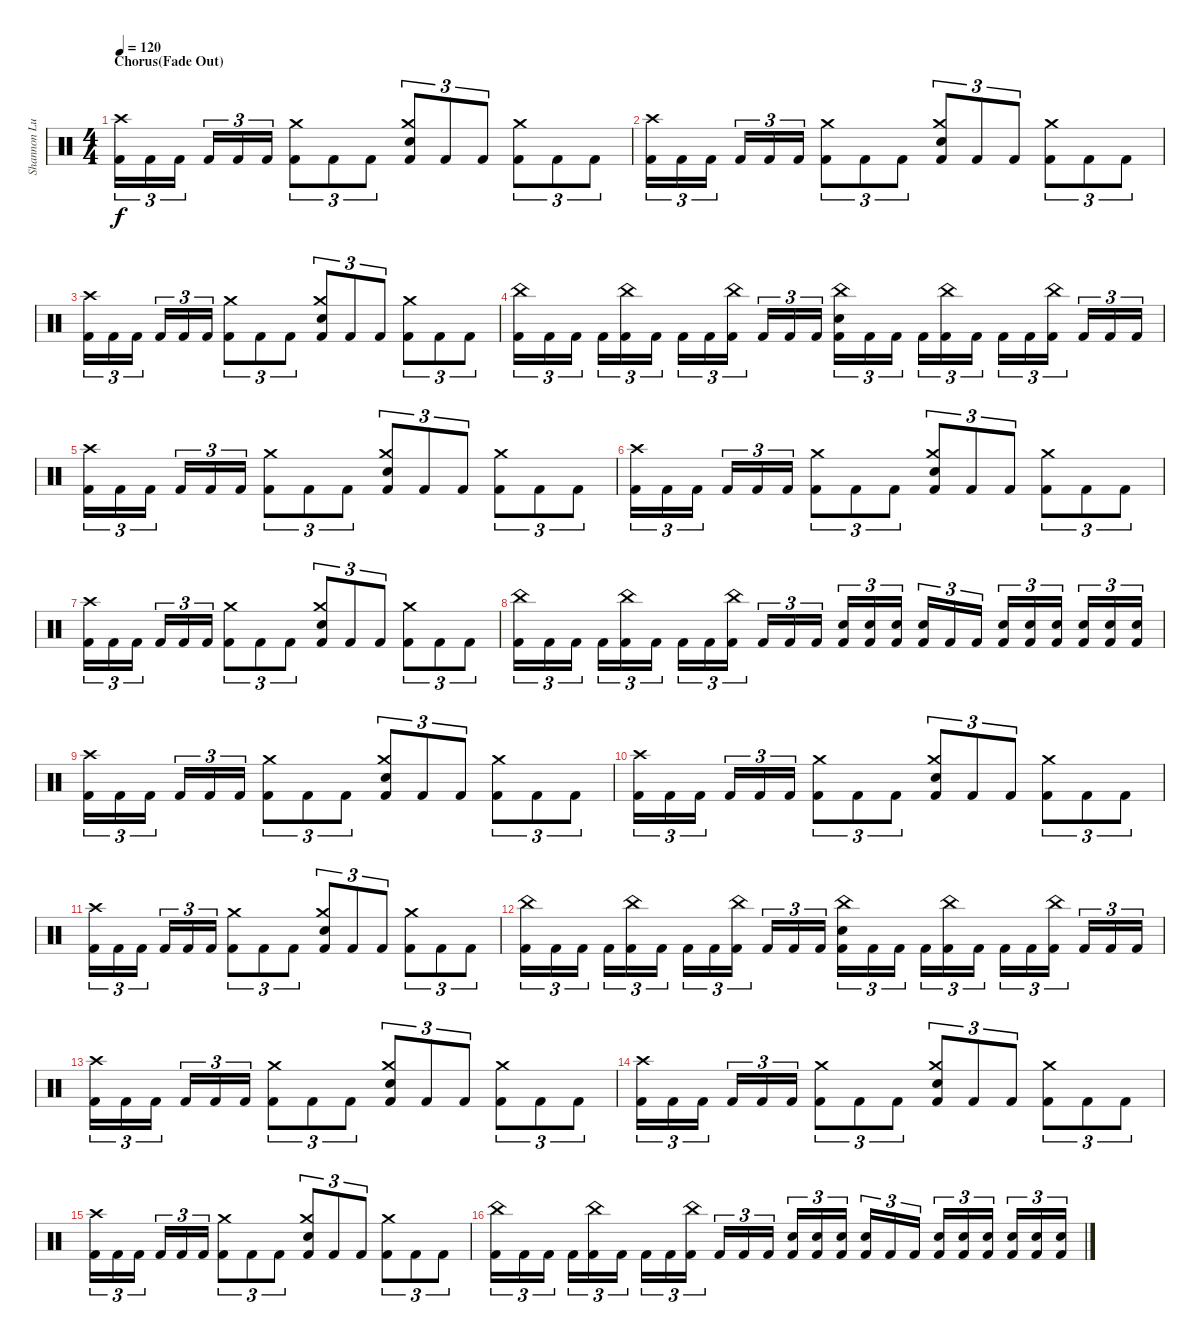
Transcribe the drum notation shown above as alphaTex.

\track ("Shannon Lucas (Drums)" "Shannon Lu") {instrument percussion}
\staff {score}
\articulation defaults
\ts (4 4)
\section ("" "Chorus(Fade Out)")
\tempo 120
\clef neutral
\ks c
("Crash high (hit)" "Kick (hit) 2").16{tu (3 2) dy f volume 15} "Kick (hit) 2".16{tu (3 2)} "Kick (hit) 2".16{tu (3 2)} "Kick (hit) 2".16{tu (3 2)} "Kick (hit) 2".16{tu (3 2)} "Kick (hit) 2".16{tu (3 2)} ("Crash medium (hit)" "Kick (hit) 2").8{tu (3 2)} "Kick (hit) 2".8{tu (3 2)} "Kick (hit) 2".8{tu (3 2)} ("Crash medium (hit)" "Snare (hit) 2" "Kick (hit) 2").8{tu (3 2)} "Kick (hit) 2".8{tu (3 2)} "Kick (hit) 2".8{tu (3 2)} ("Crash medium (hit)" "Kick (hit) 2").8{tu (3 2)} "Kick (hit) 2".8{tu (3 2)} "Kick (hit) 2".8{tu (3 2)} |
("Crash high (hit)" "Kick (hit) 2").16{tu (3 2)} "Kick (hit) 2".16{tu (3 2)} "Kick (hit) 2".16{tu (3 2)} "Kick (hit) 2".16{tu (3 2)} "Kick (hit) 2".16{tu (3 2)} "Kick (hit) 2".16{tu (3 2)} ("Crash medium (hit)" "Kick (hit) 2").8{tu (3 2)} "Kick (hit) 2".8{tu (3 2)} "Kick (hit) 2".8{tu (3 2)} ("Crash medium (hit)" "Snare (hit) 2" "Kick (hit) 2").8{tu (3 2)} "Kick (hit) 2".8{tu (3 2)} "Kick (hit) 2".8{tu (3 2)} ("Crash medium (hit)" "Kick (hit) 2").8{tu (3 2)} "Kick (hit) 2".8{tu (3 2)} "Kick (hit) 2".8{tu (3 2)} |
("Crash high (hit)" "Kick (hit) 2").16{tu (3 2)} "Kick (hit) 2".16{tu (3 2)} "Kick (hit) 2".16{tu (3 2)} "Kick (hit) 2".16{tu (3 2)} "Kick (hit) 2".16{tu (3 2)} "Kick (hit) 2".16{tu (3 2)} ("Crash medium (hit)" "Kick (hit) 2").8{tu (3 2)} "Kick (hit) 2".8{tu (3 2)} "Kick (hit) 2".8{tu (3 2)} ("Crash medium (hit)" "Snare (hit) 2" "Kick (hit) 2").8{tu (3 2)} "Kick (hit) 2".8{tu (3 2)} "Kick (hit) 2".8{tu (3 2)} ("Crash medium (hit)" "Kick (hit) 2").8{tu (3 2)} "Kick (hit) 2".8{tu (3 2)} "Kick (hit) 2".8{tu (3 2)} |
("China (hit)" "Kick (hit) 2").16{tu (3 2) volume 13} "Kick (hit) 2".16{tu (3 2)} "Kick (hit) 2".16{tu (3 2)} "Kick (hit) 2".16{tu (3 2)} ("China (hit)" "Kick (hit) 2").16{tu (3 2)} "Kick (hit) 2".16{tu (3 2)} "Kick (hit) 2".16{tu (3 2)} "Kick (hit) 2".16{tu (3 2)} ("China (hit)" "Kick (hit) 2").16{tu (3 2)} "Kick (hit) 2".16{tu (3 2)} "Kick (hit) 2".16{tu (3 2)} "Kick (hit) 2".16{tu (3 2)} ("Snare (hit) 2" "China (hit)" "Kick (hit) 2").16{tu (3 2)} "Kick (hit) 2".16{tu (3 2)} "Kick (hit) 2".16{tu (3 2)} "Kick (hit) 2".16{tu (3 2)} ("China (hit)" "Kick (hit) 2").16{tu (3 2)} "Kick (hit) 2".16{tu (3 2)} "Kick (hit) 2".16{tu (3 2)} "Kick (hit) 2".16{tu (3 2)} ("China (hit)" "Kick (hit) 2").16{tu (3 2)} "Kick (hit) 2".16{tu (3 2)} "Kick (hit) 2".16{tu (3 2)} "Kick (hit) 2".16{tu (3 2)} |
("Crash high (hit)" "Kick (hit) 2").16{tu (3 2)} "Kick (hit) 2".16{tu (3 2)} "Kick (hit) 2".16{tu (3 2)} "Kick (hit) 2".16{tu (3 2)} "Kick (hit) 2".16{tu (3 2)} "Kick (hit) 2".16{tu (3 2)} ("Crash medium (hit)" "Kick (hit) 2").8{tu (3 2)} "Kick (hit) 2".8{tu (3 2)} "Kick (hit) 2".8{tu (3 2)} ("Crash medium (hit)" "Snare (hit) 2" "Kick (hit) 2").8{tu (3 2)} "Kick (hit) 2".8{tu (3 2)} "Kick (hit) 2".8{tu (3 2)} ("Crash medium (hit)" "Kick (hit) 2").8{tu (3 2)} "Kick (hit) 2".8{tu (3 2)} "Kick (hit) 2".8{tu (3 2)} |
("Crash high (hit)" "Kick (hit) 2").16{tu (3 2)} "Kick (hit) 2".16{tu (3 2)} "Kick (hit) 2".16{tu (3 2)} "Kick (hit) 2".16{tu (3 2)} "Kick (hit) 2".16{tu (3 2)} "Kick (hit) 2".16{tu (3 2)} ("Crash medium (hit)" "Kick (hit) 2").8{tu (3 2)} "Kick (hit) 2".8{tu (3 2)} "Kick (hit) 2".8{tu (3 2)} ("Crash medium (hit)" "Snare (hit) 2" "Kick (hit) 2").8{tu (3 2) volume 12} "Kick (hit) 2".8{tu (3 2)} "Kick (hit) 2".8{tu (3 2)} ("Crash medium (hit)" "Kick (hit) 2").8{tu (3 2)} "Kick (hit) 2".8{tu (3 2)} "Kick (hit) 2".8{tu (3 2)} |
("Crash high (hit)" "Kick (hit) 2").16{tu (3 2)} "Kick (hit) 2".16{tu (3 2)} "Kick (hit) 2".16{tu (3 2)} "Kick (hit) 2".16{tu (3 2)} "Kick (hit) 2".16{tu (3 2)} "Kick (hit) 2".16{tu (3 2)} ("Crash medium (hit)" "Kick (hit) 2").8{tu (3 2)} "Kick (hit) 2".8{tu (3 2)} "Kick (hit) 2".8{tu (3 2)} ("Crash medium (hit)" "Snare (hit) 2" "Kick (hit) 2").8{tu (3 2)} "Kick (hit) 2".8{tu (3 2)} "Kick (hit) 2".8{tu (3 2)} ("Crash medium (hit)" "Kick (hit) 2").8{tu (3 2)} "Kick (hit) 2".8{tu (3 2)} "Kick (hit) 2".8{tu (3 2)} |
("China (hit)" "Kick (hit) 2").16{tu (3 2) volume 11} "Kick (hit) 2".16{tu (3 2)} "Kick (hit) 2".16{tu (3 2)} "Kick (hit) 2".16{tu (3 2)} ("China (hit)" "Kick (hit) 2").16{tu (3 2)} "Kick (hit) 2".16{tu (3 2)} "Kick (hit) 2".16{tu (3 2)} "Kick (hit) 2".16{tu (3 2)} ("China (hit)" "Kick (hit) 2").16{tu (3 2)} "Kick (hit) 2".16{tu (3 2)} "Kick (hit) 2".16{tu (3 2)} "Kick (hit) 2".16{tu (3 2)} ("Snare (hit) 2" "Kick (hit) 2").16{tu (3 2)} ("Snare (hit) 2" "Kick (hit) 2").16{tu (3 2)} ("Snare (hit) 2" "Kick (hit) 2").16{tu (3 2)} ("Snare (hit) 2" "Kick (hit) 2").16{tu (3 2)} "Kick (hit) 2".16{tu (3 2)} "Kick (hit) 2".16{tu (3 2)} ("Snare (hit) 2" "Kick (hit) 2").16{tu (3 2)} ("Snare (hit) 2" "Kick (hit) 2").16{tu (3 2)} ("Snare (hit) 2" "Kick (hit) 2").16{tu (3 2)} ("Snare (hit) 2" "Kick (hit) 2").16{tu (3 2)} ("Snare (hit) 2" "Kick (hit) 2").16{tu (3 2)} ("Snare (hit) 2" "Kick (hit) 2").16{tu (3 2)} |
("Crash high (hit)" "Kick (hit) 2").16{tu (3 2) volume 10} "Kick (hit) 2".16{tu (3 2)} "Kick (hit) 2".16{tu (3 2)} "Kick (hit) 2".16{tu (3 2)} "Kick (hit) 2".16{tu (3 2)} "Kick (hit) 2".16{tu (3 2)} ("Crash medium (hit)" "Kick (hit) 2").8{tu (3 2)} "Kick (hit) 2".8{tu (3 2)} "Kick (hit) 2".8{tu (3 2)} ("Crash medium (hit)" "Snare (hit) 2" "Kick (hit) 2").8{tu (3 2)} "Kick (hit) 2".8{tu (3 2)} "Kick (hit) 2".8{tu (3 2)} ("Crash medium (hit)" "Kick (hit) 2").8{tu (3 2)} "Kick (hit) 2".8{tu (3 2)} "Kick (hit) 2".8{tu (3 2)} |
("Crash high (hit)" "Kick (hit) 2").16{tu (3 2) volume 10} "Kick (hit) 2".16{tu (3 2)} "Kick (hit) 2".16{tu (3 2)} "Kick (hit) 2".16{tu (3 2)} "Kick (hit) 2".16{tu (3 2)} "Kick (hit) 2".16{tu (3 2)} ("Crash medium (hit)" "Kick (hit) 2").8{tu (3 2)} "Kick (hit) 2".8{tu (3 2)} "Kick (hit) 2".8{tu (3 2)} ("Crash medium (hit)" "Snare (hit) 2" "Kick (hit) 2").8{tu (3 2)} "Kick (hit) 2".8{tu (3 2)} "Kick (hit) 2".8{tu (3 2)} ("Crash medium (hit)" "Kick (hit) 2").8{tu (3 2)} "Kick (hit) 2".8{tu (3 2)} "Kick (hit) 2".8{tu (3 2)} |
("Crash high (hit)" "Kick (hit) 2").16{tu (3 2) volume 9} "Kick (hit) 2".16{tu (3 2)} "Kick (hit) 2".16{tu (3 2)} "Kick (hit) 2".16{tu (3 2)} "Kick (hit) 2".16{tu (3 2)} "Kick (hit) 2".16{tu (3 2)} ("Crash medium (hit)" "Kick (hit) 2").8{tu (3 2)} "Kick (hit) 2".8{tu (3 2)} "Kick (hit) 2".8{tu (3 2)} ("Crash medium (hit)" "Snare (hit) 2" "Kick (hit) 2").8{tu (3 2)} "Kick (hit) 2".8{tu (3 2)} "Kick (hit) 2".8{tu (3 2)} ("Crash medium (hit)" "Kick (hit) 2").8{tu (3 2)} "Kick (hit) 2".8{tu (3 2)} "Kick (hit) 2".8{tu (3 2)} |
("China (hit)" "Kick (hit) 2").16{tu (3 2) volume 8} "Kick (hit) 2".16{tu (3 2)} "Kick (hit) 2".16{tu (3 2)} "Kick (hit) 2".16{tu (3 2)} ("China (hit)" "Kick (hit) 2").16{tu (3 2)} "Kick (hit) 2".16{tu (3 2)} "Kick (hit) 2".16{tu (3 2)} "Kick (hit) 2".16{tu (3 2)} ("China (hit)" "Kick (hit) 2").16{tu (3 2)} "Kick (hit) 2".16{tu (3 2)} "Kick (hit) 2".16{tu (3 2)} "Kick (hit) 2".16{tu (3 2)} ("Snare (hit) 2" "China (hit)" "Kick (hit) 2").16{tu (3 2)} "Kick (hit) 2".16{tu (3 2)} "Kick (hit) 2".16{tu (3 2)} "Kick (hit) 2".16{tu (3 2)} ("China (hit)" "Kick (hit) 2").16{tu (3 2)} "Kick (hit) 2".16{tu (3 2)} "Kick (hit) 2".16{tu (3 2)} "Kick (hit) 2".16{tu (3 2)} ("China (hit)" "Kick (hit) 2").16{tu (3 2)} "Kick (hit) 2".16{tu (3 2)} "Kick (hit) 2".16{tu (3 2)} "Kick (hit) 2".16{tu (3 2)} |
("Crash high (hit)" "Kick (hit) 2").16{tu (3 2) volume 7} "Kick (hit) 2".16{tu (3 2)} "Kick (hit) 2".16{tu (3 2)} "Kick (hit) 2".16{tu (3 2)} "Kick (hit) 2".16{tu (3 2)} "Kick (hit) 2".16{tu (3 2)} ("Crash medium (hit)" "Kick (hit) 2").8{tu (3 2)} "Kick (hit) 2".8{tu (3 2)} "Kick (hit) 2".8{tu (3 2)} ("Crash medium (hit)" "Snare (hit) 2" "Kick (hit) 2").8{tu (3 2)} "Kick (hit) 2".8{tu (3 2)} "Kick (hit) 2".8{tu (3 2)} ("Crash medium (hit)" "Kick (hit) 2").8{tu (3 2)} "Kick (hit) 2".8{tu (3 2)} "Kick (hit) 2".8{tu (3 2)} |
("Crash high (hit)" "Kick (hit) 2").16{tu (3 2) volume 6} "Kick (hit) 2".16{tu (3 2)} "Kick (hit) 2".16{tu (3 2)} "Kick (hit) 2".16{tu (3 2)} "Kick (hit) 2".16{tu (3 2)} "Kick (hit) 2".16{tu (3 2)} ("Crash medium (hit)" "Kick (hit) 2").8{tu (3 2)} "Kick (hit) 2".8{tu (3 2)} "Kick (hit) 2".8{tu (3 2)} ("Crash medium (hit)" "Snare (hit) 2" "Kick (hit) 2").8{tu (3 2)} "Kick (hit) 2".8{tu (3 2)} "Kick (hit) 2".8{tu (3 2)} ("Crash medium (hit)" "Kick (hit) 2").8{tu (3 2)} "Kick (hit) 2".8{tu (3 2)} "Kick (hit) 2".8{tu (3 2)} |
("Crash high (hit)" "Kick (hit) 2").16{tu (3 2)} "Kick (hit) 2".16{tu (3 2)} "Kick (hit) 2".16{tu (3 2)} "Kick (hit) 2".16{tu (3 2)} "Kick (hit) 2".16{tu (3 2)} "Kick (hit) 2".16{tu (3 2)} ("Crash medium (hit)" "Kick (hit) 2").8{tu (3 2)} "Kick (hit) 2".8{tu (3 2)} "Kick (hit) 2".8{tu (3 2)} ("Crash medium (hit)" "Snare (hit) 2" "Kick (hit) 2").8{tu (3 2)} "Kick (hit) 2".8{tu (3 2)} "Kick (hit) 2".8{tu (3 2)} ("Crash medium (hit)" "Kick (hit) 2").8{tu (3 2)} "Kick (hit) 2".8{tu (3 2)} "Kick (hit) 2".8{tu (3 2)} |
("China (hit)" "Kick (hit) 2").16{tu (3 2)} "Kick (hit) 2".16{tu (3 2)} "Kick (hit) 2".16{tu (3 2)} "Kick (hit) 2".16{tu (3 2)} ("China (hit)" "Kick (hit) 2").16{tu (3 2)} "Kick (hit) 2".16{tu (3 2)} "Kick (hit) 2".16{tu (3 2)} "Kick (hit) 2".16{tu (3 2)} ("China (hit)" "Kick (hit) 2").16{tu (3 2)} "Kick (hit) 2".16{tu (3 2)} "Kick (hit) 2".16{tu (3 2)} "Kick (hit) 2".16{tu (3 2)} ("Snare (hit) 2" "Kick (hit) 2").16{tu (3 2) volume 5} ("Snare (hit) 2" "Kick (hit) 2").16{tu (3 2)} ("Snare (hit) 2" "Kick (hit) 2").16{tu (3 2)} ("Snare (hit) 2" "Kick (hit) 2").16{tu (3 2)} "Kick (hit) 2".16{tu (3 2)} "Kick (hit) 2".16{tu (3 2)} ("Snare (hit) 2" "Kick (hit) 2").16{tu (3 2)} ("Snare (hit) 2" "Kick (hit) 2").16{tu (3 2)} ("Snare (hit) 2" "Kick (hit) 2").16{tu (3 2)} ("Snare (hit) 2" "Kick (hit) 2").16{tu (3 2)} ("Snare (hit) 2" "Kick (hit) 2").16{tu (3 2)} ("Snare (hit) 2" "Kick (hit) 2").16{tu (3 2)}
